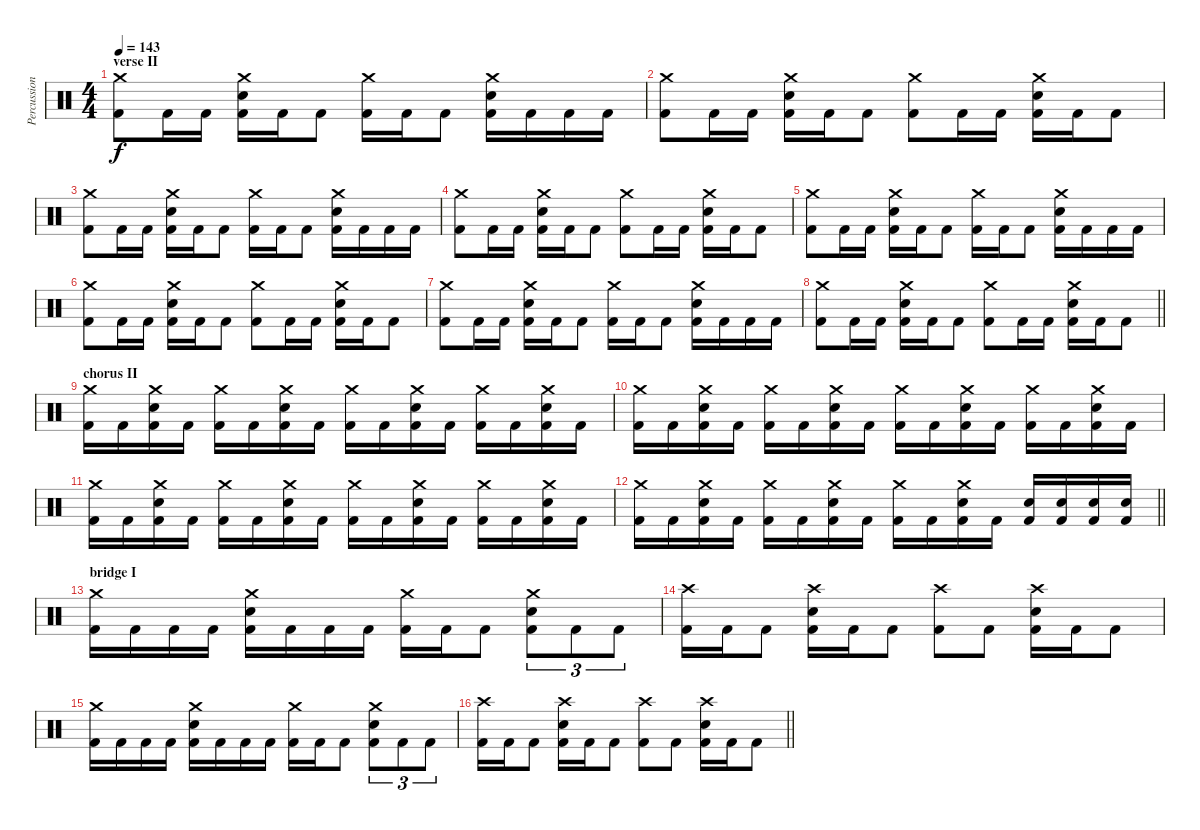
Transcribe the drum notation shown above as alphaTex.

\track ("Percussion" "Percussion") {instrument percussion}
\staff {score}
\articulation defaults
\ts (4 4)
\section ("" "verse II")
\tempo 143
\clef neutral
\ks c
("Crash medium (hit)" "Kick (hit) 2").8{dy f} "Kick (hit) 2".16 "Kick (hit) 2".16 ("Crash medium (hit)" "Snare (hit) 2" "Kick (hit) 2").16 "Kick (hit) 2".16 "Kick (hit) 2".8 ("Crash medium (hit)" "Kick (hit) 2").16 "Kick (hit) 2".16 "Kick (hit) 2".8 ("Crash medium (hit)" "Snare (hit) 2" "Kick (hit) 2").16 "Kick (hit) 2".16 "Kick (hit) 2".16 "Kick (hit) 2".16 |
("Crash medium (hit)" "Kick (hit) 2").8 "Kick (hit) 2".16 "Kick (hit) 2".16 ("Crash medium (hit)" "Snare (hit) 2" "Kick (hit) 2").16 "Kick (hit) 2".16 "Kick (hit) 2".8 ("Crash medium (hit)" "Kick (hit) 2").8 "Kick (hit) 2".16 "Kick (hit) 2".16 ("Crash medium (hit)" "Snare (hit) 2" "Kick (hit) 2").16 "Kick (hit) 2".16 "Kick (hit) 2".8 |
("Crash medium (hit)" "Kick (hit) 2").8 "Kick (hit) 2".16 "Kick (hit) 2".16 ("Crash medium (hit)" "Snare (hit) 2" "Kick (hit) 2").16 "Kick (hit) 2".16 "Kick (hit) 2".8 ("Crash medium (hit)" "Kick (hit) 2").16 "Kick (hit) 2".16 "Kick (hit) 2".8 ("Crash medium (hit)" "Snare (hit) 2" "Kick (hit) 2").16 "Kick (hit) 2".16 "Kick (hit) 2".16 "Kick (hit) 2".16 |
("Crash medium (hit)" "Kick (hit) 2").8 "Kick (hit) 2".16 "Kick (hit) 2".16 ("Crash medium (hit)" "Snare (hit) 2" "Kick (hit) 2").16 "Kick (hit) 2".16 "Kick (hit) 2".8 ("Crash medium (hit)" "Kick (hit) 2").8 "Kick (hit) 2".16 "Kick (hit) 2".16 ("Crash medium (hit)" "Snare (hit) 2" "Kick (hit) 2").16 "Kick (hit) 2".16 "Kick (hit) 2".8 |
("Crash medium (hit)" "Kick (hit) 2").8 "Kick (hit) 2".16 "Kick (hit) 2".16 ("Crash medium (hit)" "Snare (hit) 2" "Kick (hit) 2").16 "Kick (hit) 2".16 "Kick (hit) 2".8 ("Crash medium (hit)" "Kick (hit) 2").16 "Kick (hit) 2".16 "Kick (hit) 2".8 ("Crash medium (hit)" "Snare (hit) 2" "Kick (hit) 2").16 "Kick (hit) 2".16 "Kick (hit) 2".16 "Kick (hit) 2".16 |
("Crash medium (hit)" "Kick (hit) 2").8 "Kick (hit) 2".16 "Kick (hit) 2".16 ("Crash medium (hit)" "Snare (hit) 2" "Kick (hit) 2").16 "Kick (hit) 2".16 "Kick (hit) 2".8 ("Crash medium (hit)" "Kick (hit) 2").8 "Kick (hit) 2".16 "Kick (hit) 2".16 ("Crash medium (hit)" "Snare (hit) 2" "Kick (hit) 2").16 "Kick (hit) 2".16 "Kick (hit) 2".8 |
("Crash medium (hit)" "Kick (hit) 2").8 "Kick (hit) 2".16 "Kick (hit) 2".16 ("Crash medium (hit)" "Snare (hit) 2" "Kick (hit) 2").16 "Kick (hit) 2".16 "Kick (hit) 2".8 ("Crash medium (hit)" "Kick (hit) 2").16 "Kick (hit) 2".16 "Kick (hit) 2".8 ("Crash medium (hit)" "Snare (hit) 2" "Kick (hit) 2").16 "Kick (hit) 2".16 "Kick (hit) 2".16 "Kick (hit) 2".16 |
\barLineRight lightlight
("Crash medium (hit)" "Kick (hit) 2").8 "Kick (hit) 2".16 "Kick (hit) 2".16 ("Crash medium (hit)" "Snare (hit) 2" "Kick (hit) 2").16 "Kick (hit) 2".16 "Kick (hit) 2".8 ("Crash medium (hit)" "Kick (hit) 2").8 "Kick (hit) 2".16 "Kick (hit) 2".16 ("Crash medium (hit)" "Snare (hit) 2" "Kick (hit) 2").16 "Kick (hit) 2".16 "Kick (hit) 2".8 |
\section ("" "chorus II")
("Crash medium (hit)" "Kick (hit) 2").16 "Kick (hit) 2".16 ("Crash medium (hit)" "Snare (hit) 2" "Kick (hit) 2").16 "Kick (hit) 2".16 ("Crash medium (hit)" "Kick (hit) 2").16 "Kick (hit) 2".16 ("Crash medium (hit)" "Snare (hit) 2" "Kick (hit) 2").16 "Kick (hit) 2".16 ("Crash medium (hit)" "Kick (hit) 2").16 "Kick (hit) 2".16 ("Crash medium (hit)" "Snare (hit) 2" "Kick (hit) 2").16 "Kick (hit) 2".16 ("Crash medium (hit)" "Kick (hit) 2").16 "Kick (hit) 2".16 ("Crash medium (hit)" "Snare (hit) 2" "Kick (hit) 2").16 "Kick (hit) 2".16 |
("Crash medium (hit)" "Kick (hit) 2").16 "Kick (hit) 2".16 ("Crash medium (hit)" "Snare (hit) 2" "Kick (hit) 2").16 "Kick (hit) 2".16 ("Crash medium (hit)" "Kick (hit) 2").16 "Kick (hit) 2".16 ("Crash medium (hit)" "Snare (hit) 2" "Kick (hit) 2").16 "Kick (hit) 2".16 ("Crash medium (hit)" "Kick (hit) 2").16 "Kick (hit) 2".16 ("Crash medium (hit)" "Snare (hit) 2" "Kick (hit) 2").16 "Kick (hit) 2".16 ("Crash medium (hit)" "Kick (hit) 2").16 "Kick (hit) 2".16 ("Crash medium (hit)" "Snare (hit) 2" "Kick (hit) 2").16 "Kick (hit) 2".16 |
("Crash medium (hit)" "Kick (hit) 2").16 "Kick (hit) 2".16 ("Crash medium (hit)" "Snare (hit) 2" "Kick (hit) 2").16 "Kick (hit) 2".16 ("Crash medium (hit)" "Kick (hit) 2").16 "Kick (hit) 2".16 ("Crash medium (hit)" "Snare (hit) 2" "Kick (hit) 2").16 "Kick (hit) 2".16 ("Crash medium (hit)" "Kick (hit) 2").16 "Kick (hit) 2".16 ("Crash medium (hit)" "Snare (hit) 2" "Kick (hit) 2").16 "Kick (hit) 2".16 ("Crash medium (hit)" "Kick (hit) 2").16 "Kick (hit) 2".16 ("Crash medium (hit)" "Snare (hit) 2" "Kick (hit) 2").16 "Kick (hit) 2".16 |
\barLineRight lightlight
("Crash medium (hit)" "Kick (hit) 2").16 "Kick (hit) 2".16 ("Crash medium (hit)" "Snare (hit) 2" "Kick (hit) 2").16 "Kick (hit) 2".16 ("Crash medium (hit)" "Kick (hit) 2").16 "Kick (hit) 2".16 ("Crash medium (hit)" "Snare (hit) 2" "Kick (hit) 2").16 "Kick (hit) 2".16 ("Crash medium (hit)" "Kick (hit) 2").16 "Kick (hit) 2".16 ("Crash medium (hit)" "Snare (hit) 2" "Kick (hit) 2").16 "Kick (hit) 2".16 ("Snare (hit) 2" "Kick (hit) 2").16 ("Snare (hit) 2" "Kick (hit) 2").16 ("Snare (hit) 2" "Kick (hit) 2").16 ("Snare (hit) 2" "Kick (hit) 2").16 |
\section ("" "bridge I")
("Crash medium (hit)" "Kick (hit) 2").16 "Kick (hit) 2".16 "Kick (hit) 2".16 "Kick (hit) 2".16 ("Crash medium (hit)" "Snare (hit) 2" "Kick (hit) 2").16 "Kick (hit) 2".16 "Kick (hit) 2".16 "Kick (hit) 2".16 ("Crash medium (hit)" "Kick (hit) 2").16 "Kick (hit) 2".16 "Kick (hit) 2".8 ("Crash medium (hit)" "Snare (hit) 2" "Kick (hit) 2").8{tu (3 2)} "Kick (hit) 2".8{tu (3 2)} "Kick (hit) 2".8{tu (3 2)} |
("Crash high (hit)" "Kick (hit) 2").16 "Kick (hit) 2".16 "Kick (hit) 2".8 ("Crash high (hit)" "Snare (hit) 2" "Kick (hit) 2").16 "Kick (hit) 2".16 "Kick (hit) 2".8 ("Crash high (hit)" "Kick (hit) 2").8 "Kick (hit) 2".8 ("Crash high (hit)" "Snare (hit) 2" "Kick (hit) 2").16 "Kick (hit) 2".16 "Kick (hit) 2".8 |
("Crash medium (hit)" "Kick (hit) 2").16 "Kick (hit) 2".16 "Kick (hit) 2".16 "Kick (hit) 2".16 ("Crash medium (hit)" "Snare (hit) 2" "Kick (hit) 2").16 "Kick (hit) 2".16 "Kick (hit) 2".16 "Kick (hit) 2".16 ("Crash medium (hit)" "Kick (hit) 2").16 "Kick (hit) 2".16 "Kick (hit) 2".8 ("Crash medium (hit)" "Snare (hit) 2" "Kick (hit) 2").8{tu (3 2)} "Kick (hit) 2".8{tu (3 2)} "Kick (hit) 2".8{tu (3 2)} |
\barLineRight lightlight
("Crash high (hit)" "Kick (hit) 2").16 "Kick (hit) 2".16 "Kick (hit) 2".8 ("Crash high (hit)" "Snare (hit) 2" "Kick (hit) 2").16 "Kick (hit) 2".16 "Kick (hit) 2".8 ("Crash high (hit)" "Kick (hit) 2").8 "Kick (hit) 2".8 ("Crash high (hit)" "Snare (hit) 2" "Kick (hit) 2").16 "Kick (hit) 2".16 "Kick (hit) 2".8
